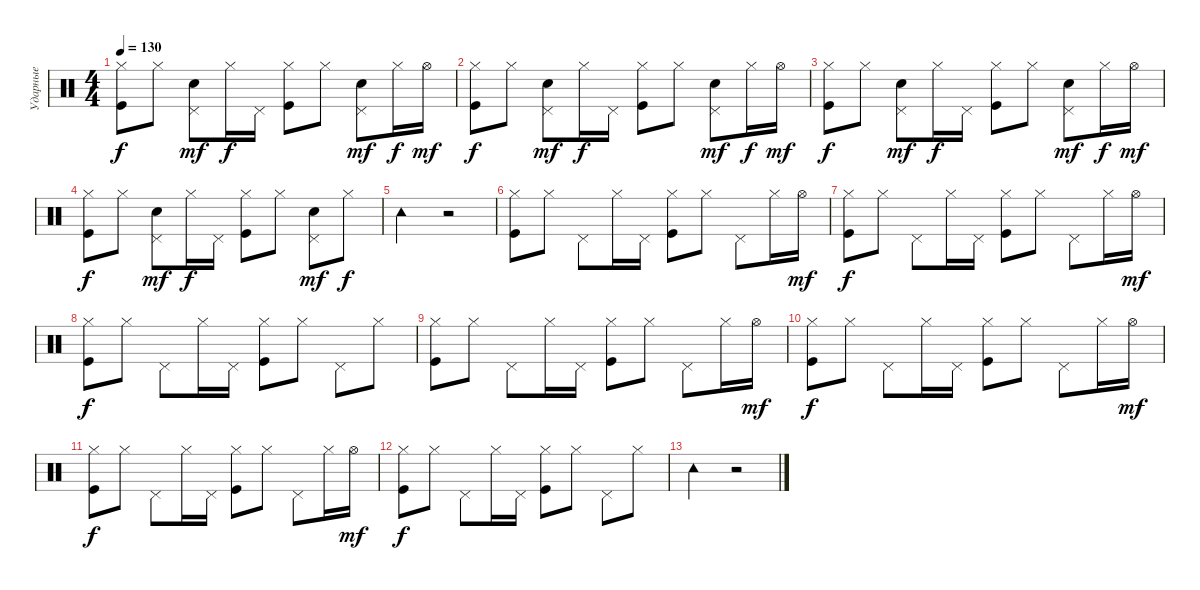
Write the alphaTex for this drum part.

\track ("Ударные" "Ударные") {instrument percussion}
\staff {score}
\articulation defaults
\ts (4 4)
\tempo 130
\clef neutral
\ks c
("Hi-Hat (closed)" "Kick (hit)").8{dy f} "Hi-Hat (closed)".8 ("Pedal Hi-Hat (hit)" "Metronome (bell)").8{dy mf} "Hi-Hat (closed)".16{dy f} "Pedal Hi-Hat (hit)".16 ("Hi-Hat (closed)" "Kick (hit)").8 "Hi-Hat (closed)".8 ("Pedal Hi-Hat (hit)" "Metronome (bell)").8{dy mf} "Hi-Hat (closed)".16{dy f} "Hi-Hat (open)".16{dy mf} |
("Hi-Hat (closed)" "Kick (hit)").8{dy f} "Hi-Hat (closed)".8 ("Pedal Hi-Hat (hit)" "Metronome (bell)").8{dy mf} "Hi-Hat (closed)".16{dy f} "Pedal Hi-Hat (hit)".16 ("Hi-Hat (closed)" "Kick (hit)").8 "Hi-Hat (closed)".8 ("Pedal Hi-Hat (hit)" "Metronome (bell)").8{dy mf} "Hi-Hat (closed)".16{dy f} "Hi-Hat (open)".16{dy mf} |
("Hi-Hat (closed)" "Kick (hit)").8{dy f} "Hi-Hat (closed)".8 ("Pedal Hi-Hat (hit)" "Metronome (bell)").8{dy mf} "Hi-Hat (closed)".16{dy f} "Pedal Hi-Hat (hit)".16 ("Hi-Hat (closed)" "Kick (hit)").8 "Hi-Hat (closed)".8 ("Pedal Hi-Hat (hit)" "Metronome (bell)").8{dy mf} "Hi-Hat (closed)".16{dy f} "Hi-Hat (open)".16{dy mf} |
("Hi-Hat (closed)" "Kick (hit)").8{dy f} "Hi-Hat (closed)".8 ("Pedal Hi-Hat (hit)" "Metronome (bell)").8{dy mf} "Hi-Hat (closed)".16{dy f} "Pedal Hi-Hat (hit)".16 ("Hi-Hat (closed)" "Kick (hit)").8 "Hi-Hat (closed)".8 ("Pedal Hi-Hat (hit)" "Metronome (bell)").8{dy mf} "Hi-Hat (closed)".8{dy f} |
"Tambourine (hit)".2 r.2 |
("Hi-Hat (closed)" "Kick (hit)").8 "Hi-Hat (closed)".8 "Pedal Hi-Hat (hit)".8 "Hi-Hat (closed)".16 "Pedal Hi-Hat (hit)".16 ("Hi-Hat (closed)" "Kick (hit)").8 "Hi-Hat (closed)".8 "Pedal Hi-Hat (hit)".8 "Hi-Hat (closed)".16 "Hi-Hat (open)".16{dy mf} |
("Hi-Hat (closed)" "Kick (hit)").8{dy f} "Hi-Hat (closed)".8 "Pedal Hi-Hat (hit)".8 "Hi-Hat (closed)".16 "Pedal Hi-Hat (hit)".16 ("Hi-Hat (closed)" "Kick (hit)").8 "Hi-Hat (closed)".8 "Pedal Hi-Hat (hit)".8 "Hi-Hat (closed)".16 "Hi-Hat (open)".16{dy mf} |
("Hi-Hat (closed)" "Kick (hit)").8{dy f} "Hi-Hat (closed)".8 "Pedal Hi-Hat (hit)".8 "Hi-Hat (closed)".16 "Pedal Hi-Hat (hit)".16 ("Hi-Hat (closed)" "Kick (hit)").8 "Hi-Hat (closed)".8 "Pedal Hi-Hat (hit)".8 "Hi-Hat (closed)".8 |
("Hi-Hat (closed)" "Kick (hit)").8 "Hi-Hat (closed)".8 "Pedal Hi-Hat (hit)".8 "Hi-Hat (closed)".16 "Pedal Hi-Hat (hit)".16 ("Hi-Hat (closed)" "Kick (hit)").8 "Hi-Hat (closed)".8 "Pedal Hi-Hat (hit)".8 "Hi-Hat (closed)".16 "Hi-Hat (open)".16{dy mf} |
("Hi-Hat (closed)" "Kick (hit)").8{dy f} "Hi-Hat (closed)".8 "Pedal Hi-Hat (hit)".8 "Hi-Hat (closed)".16 "Pedal Hi-Hat (hit)".16 ("Hi-Hat (closed)" "Kick (hit)").8 "Hi-Hat (closed)".8 "Pedal Hi-Hat (hit)".8 "Hi-Hat (closed)".16 "Hi-Hat (open)".16{dy mf} |
("Hi-Hat (closed)" "Kick (hit)").8{dy f} "Hi-Hat (closed)".8 "Pedal Hi-Hat (hit)".8 "Hi-Hat (closed)".16 "Pedal Hi-Hat (hit)".16 ("Hi-Hat (closed)" "Kick (hit)").8 "Hi-Hat (closed)".8 "Pedal Hi-Hat (hit)".8 "Hi-Hat (closed)".16 "Hi-Hat (open)".16{dy mf} |
("Hi-Hat (closed)" "Kick (hit)").8{dy f} "Hi-Hat (closed)".8 "Pedal Hi-Hat (hit)".8 "Hi-Hat (closed)".16 "Pedal Hi-Hat (hit)".16 ("Hi-Hat (closed)" "Kick (hit)").8 "Hi-Hat (closed)".8 "Pedal Hi-Hat (hit)".8 "Hi-Hat (closed)".8 |
"Tambourine (hit)".2 r.2
